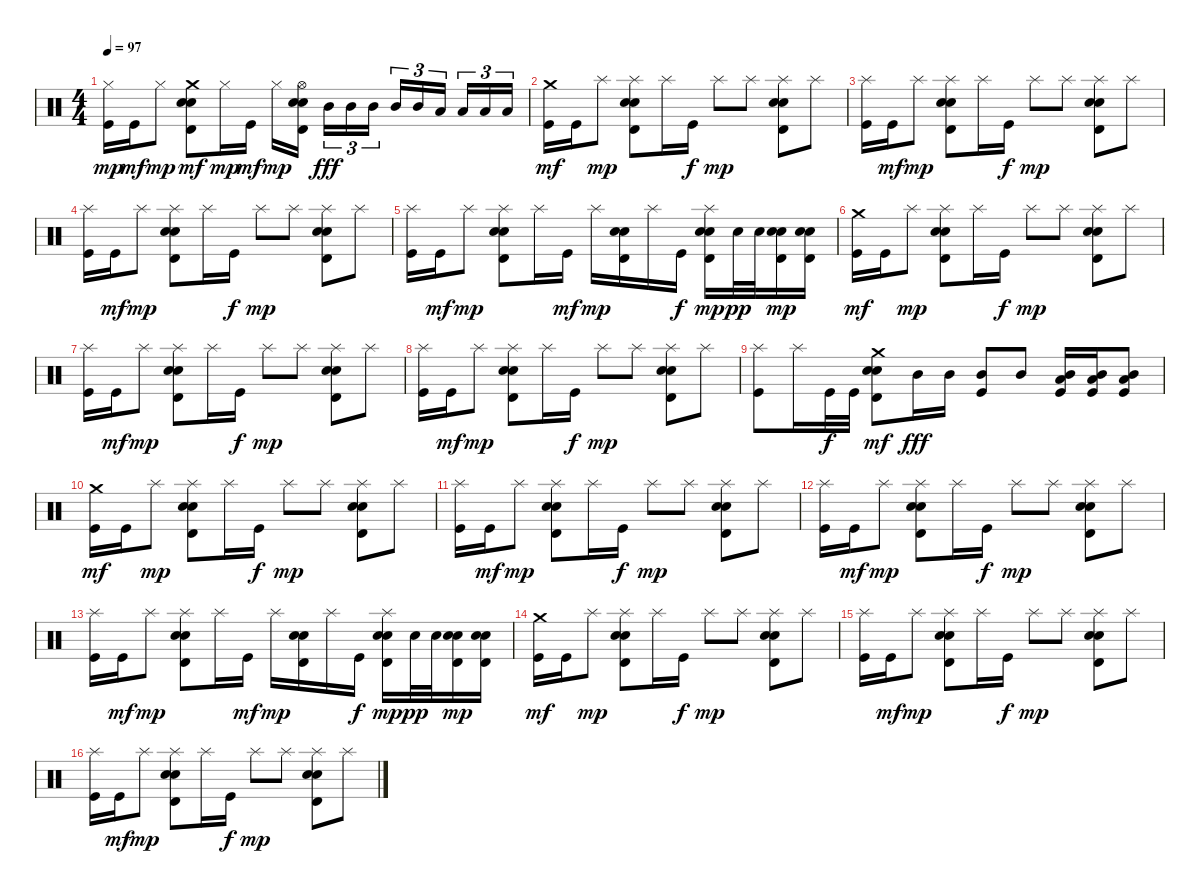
\track "" {instrument percussion}
\staff {score}
\articulation defaults
\ts (4 4)
\tempo 97
\clef neutral
\ks c
("Kick (hit)" "Hi-Hat (closed)").16{dy mp} "Kick (hit)".16{dy mf} "Hi-Hat (closed)".8{dy mp} ("Snare (hit) 2" "Electric Snare (hit)" "Timbale high (hit)" "Crash medium (hit)").8{dy mf} "Hi-Hat (closed)".16{dy mp} "Kick (hit)".16{dy mf} "Hi-Hat (closed)".16{dy mp} ("Snare (hit) 2" "Electric Snare (hit)" "Timbale high (hit)" "Hi-Hat (open)").16 "Mid Tom (hit)".16{tu (3 2) dy fff} "Mid Tom (hit)".16{tu (3 2)} "Mid Tom (hit)".16{tu (3 2)} "Mid Tom (hit)".16{tu (3 2)} "Mid Tom (hit)".16{tu (3 2)} "Low Tom (hit)".16{tu (3 2)} "Low Tom (hit)".16{tu (3 2)} "Low Tom (hit)".16{tu (3 2)} "Low Tom (hit)".16{tu (3 2)} |
\section ("" "")
("Kick (hit)" "Crash medium (hit)").16{dy mf} "Kick (hit)".16 "Splash (hit)".8{dy mp} ("Snare (hit) 2" "Electric Snare (hit)" "Timbale high (hit)" "Splash (hit)").8 "Splash (hit)".16 "Kick (hit)".16{dy f} "Splash (hit)".8{dy mp} "Splash (hit)".8 ("Snare (hit) 2" "Electric Snare (hit)" "Timbale high (hit)" "Splash (hit)").8 "Splash (hit)".8 |
("Kick (hit)" "Splash (hit)").16 "Kick (hit)".16{dy mf} "Splash (hit)".8{dy mp} ("Snare (hit) 2" "Electric Snare (hit)" "Timbale high (hit)" "Splash (hit)").8 "Splash (hit)".16 "Kick (hit)".16{dy f} "Splash (hit)".8{dy mp} "Splash (hit)".8 ("Snare (hit) 2" "Electric Snare (hit)" "Timbale high (hit)" "Splash (hit)").8 "Splash (hit)".8 |
("Kick (hit)" "Splash (hit)").16 "Kick (hit)".16{dy mf} "Splash (hit)".8{dy mp} ("Snare (hit) 2" "Electric Snare (hit)" "Timbale high (hit)" "Splash (hit)").8 "Splash (hit)".16 "Kick (hit)".16{dy f} "Splash (hit)".8{dy mp} "Splash (hit)".8 ("Snare (hit) 2" "Electric Snare (hit)" "Timbale high (hit)" "Splash (hit)").8 "Splash (hit)".8 |
("Kick (hit)" "Splash (hit)").16 "Kick (hit)".16{dy mf} "Splash (hit)".8{dy mp} ("Snare (hit) 2" "Electric Snare (hit)" "Timbale high (hit)" "Splash (hit)").8 "Splash (hit)".16 "Kick (hit)".16{dy mf} "Splash (hit)".16{dy mp} ("Snare (hit) 2" "Electric Snare (hit)" "Timbale high (hit)").16 "Splash (hit)".16 "Kick (hit)".16{dy f} ("Snare (hit) 2" "Electric Snare (hit)" "Timbale high (hit)" "Splash (hit)").16{dy mp} "Snare (hit) 2".32{dy pp} "Snare (hit) 2".32 ("Snare (hit) 2" "Electric Snare (hit)" "Timbale high (hit)").16{dy mp} ("Snare (hit) 2" "Electric Snare (hit)" "Timbale high (hit)").16 |
\section ("" "")
("Kick (hit)" "Crash medium (hit)").16{dy mf} "Kick (hit)".16 "Splash (hit)".8{dy mp} ("Snare (hit) 2" "Electric Snare (hit)" "Timbale high (hit)" "Splash (hit)").8 "Splash (hit)".16 "Kick (hit)".16{dy f} "Splash (hit)".8{dy mp} "Splash (hit)".8 ("Snare (hit) 2" "Electric Snare (hit)" "Timbale high (hit)" "Splash (hit)").8 "Splash (hit)".8 |
("Kick (hit)" "Splash (hit)").16 "Kick (hit)".16{dy mf} "Splash (hit)".8{dy mp} ("Snare (hit) 2" "Electric Snare (hit)" "Timbale high (hit)" "Splash (hit)").8 "Splash (hit)".16 "Kick (hit)".16{dy f} "Splash (hit)".8{dy mp} "Splash (hit)".8 ("Snare (hit) 2" "Electric Snare (hit)" "Timbale high (hit)" "Splash (hit)").8 "Splash (hit)".8 |
("Kick (hit)" "Splash (hit)").16 "Kick (hit)".16{dy mf} "Splash (hit)".8{dy mp} ("Snare (hit) 2" "Electric Snare (hit)" "Timbale high (hit)" "Splash (hit)").8 "Splash (hit)".16 "Kick (hit)".16{dy f} "Splash (hit)".8{dy mp} "Splash (hit)".8 ("Snare (hit) 2" "Electric Snare (hit)" "Timbale high (hit)" "Splash (hit)").8 "Splash (hit)".8 |
("Kick (hit)" "Splash (hit)").8 "Splash (hit)".16 "Kick (hit)".32{dy f} "Kick (hit)".32 ("Snare (hit) 2" "Electric Snare (hit)" "Timbale high (hit)" "Crash medium (hit)").8{dy mf} "Mid Tom (hit)".16{dy fff} "Mid Tom (hit)".16 ("Kick (hit)" "Mid Tom (hit)").8 "Mid Tom (hit)".8 ("Kick (hit)" "Mid Tom (hit)" "Low Tom (hit)").16 ("Kick (hit)" "Mid Tom (hit)" "Low Tom (hit)").16 ("Kick (hit)" "Mid Tom (hit)" "Low Tom (hit)").8 |
\section ("" "")
("Kick (hit)" "Crash medium (hit)").16{dy mf} "Kick (hit)".16 "Splash (hit)".8{dy mp} ("Snare (hit) 2" "Electric Snare (hit)" "Timbale high (hit)" "Splash (hit)").8 "Splash (hit)".16 "Kick (hit)".16{dy f} "Splash (hit)".8{dy mp} "Splash (hit)".8 ("Snare (hit) 2" "Electric Snare (hit)" "Timbale high (hit)" "Splash (hit)").8 "Splash (hit)".8 |
("Kick (hit)" "Splash (hit)").16 "Kick (hit)".16{dy mf} "Splash (hit)".8{dy mp} ("Snare (hit) 2" "Electric Snare (hit)" "Timbale high (hit)" "Splash (hit)").8 "Splash (hit)".16 "Kick (hit)".16{dy f} "Splash (hit)".8{dy mp} "Splash (hit)".8 ("Snare (hit) 2" "Electric Snare (hit)" "Timbale high (hit)" "Splash (hit)").8 "Splash (hit)".8 |
("Kick (hit)" "Splash (hit)").16 "Kick (hit)".16{dy mf} "Splash (hit)".8{dy mp} ("Snare (hit) 2" "Electric Snare (hit)" "Timbale high (hit)" "Splash (hit)").8 "Splash (hit)".16 "Kick (hit)".16{dy f} "Splash (hit)".8{dy mp} "Splash (hit)".8 ("Snare (hit) 2" "Electric Snare (hit)" "Timbale high (hit)" "Splash (hit)").8 "Splash (hit)".8 |
("Kick (hit)" "Splash (hit)").16 "Kick (hit)".16{dy mf} "Splash (hit)".8{dy mp} ("Snare (hit) 2" "Electric Snare (hit)" "Timbale high (hit)" "Splash (hit)").8 "Splash (hit)".16 "Kick (hit)".16{dy mf} "Splash (hit)".16{dy mp} ("Snare (hit) 2" "Electric Snare (hit)" "Timbale high (hit)").16 "Splash (hit)".16 "Kick (hit)".16{dy f} ("Snare (hit) 2" "Electric Snare (hit)" "Timbale high (hit)" "Splash (hit)").16{dy mp} "Snare (hit) 2".32{dy pp} "Snare (hit) 2".32 ("Snare (hit) 2" "Electric Snare (hit)" "Timbale high (hit)").16{dy mp} ("Snare (hit) 2" "Electric Snare (hit)" "Timbale high (hit)").16 |
\section ("" "")
("Kick (hit)" "Crash medium (hit)").16{dy mf} "Kick (hit)".16 "Splash (hit)".8{dy mp} ("Snare (hit) 2" "Electric Snare (hit)" "Timbale high (hit)" "Splash (hit)").8 "Splash (hit)".16 "Kick (hit)".16{dy f} "Splash (hit)".8{dy mp} "Splash (hit)".8 ("Snare (hit) 2" "Electric Snare (hit)" "Timbale high (hit)" "Splash (hit)").8 "Splash (hit)".8 |
("Kick (hit)" "Splash (hit)").16 "Kick (hit)".16{dy mf} "Splash (hit)".8{dy mp} ("Snare (hit) 2" "Electric Snare (hit)" "Timbale high (hit)" "Splash (hit)").8 "Splash (hit)".16 "Kick (hit)".16{dy f} "Splash (hit)".8{dy mp} "Splash (hit)".8 ("Snare (hit) 2" "Electric Snare (hit)" "Timbale high (hit)" "Splash (hit)").8 "Splash (hit)".8 |
("Kick (hit)" "Splash (hit)").16 "Kick (hit)".16{dy mf} "Splash (hit)".8{dy mp} ("Snare (hit) 2" "Electric Snare (hit)" "Timbale high (hit)" "Splash (hit)").8 "Splash (hit)".16 "Kick (hit)".16{dy f} "Splash (hit)".8{dy mp} "Splash (hit)".8 ("Snare (hit) 2" "Electric Snare (hit)" "Timbale high (hit)" "Splash (hit)").8 "Splash (hit)".8
